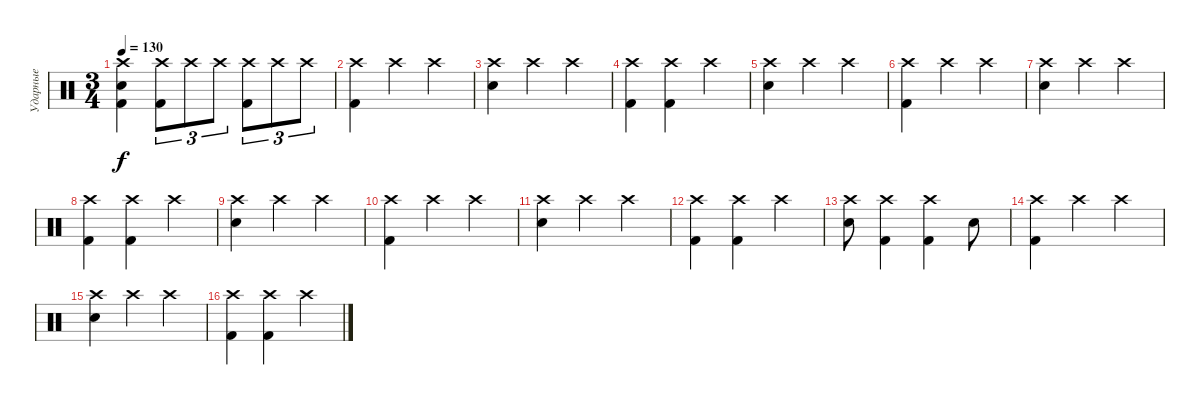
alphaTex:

\track ("Ударные" "Ударные") {instrument percussion}
\staff {score}
\articulation defaults
\ts (3 4)
\tempo 130
\clef neutral
\ks c
("Crash high (hit)" "Electric Snare (hit)" "Kick (hit) 2").4{dy f} ("Crash high (hit)" "Kick (hit) 2").8{tu (3 2)} "Crash high (hit)".8{tu (3 2)} "Crash high (hit)".8{tu (3 2)} ("Crash high (hit)" "Kick (hit) 2").8{tu (3 2)} "Crash high (hit)".8{tu (3 2)} "Crash high (hit)".8{tu (3 2)} |
("Crash high (hit)" "Kick (hit) 2").4 "Crash high (hit)".4 "Crash high (hit)".4 |
("Crash high (hit)" "Electric Snare (hit)").4 "Crash high (hit)".4 "Crash high (hit)".4 |
("Crash high (hit)" "Kick (hit) 2").4 ("Crash high (hit)" "Kick (hit) 2").4 "Crash high (hit)".4 |
("Crash high (hit)" "Electric Snare (hit)").4 "Crash high (hit)".4 "Crash high (hit)".4 |
("Crash high (hit)" "Kick (hit) 2").4 "Crash high (hit)".4 "Crash high (hit)".4 |
("Crash high (hit)" "Electric Snare (hit)").4 "Crash high (hit)".4 "Crash high (hit)".4 |
("Crash high (hit)" "Kick (hit) 2").4 ("Crash high (hit)" "Kick (hit) 2").4 "Crash high (hit)".4 |
("Crash high (hit)" "Electric Snare (hit)").4 "Crash high (hit)".4 "Crash high (hit)".4 |
("Crash high (hit)" "Kick (hit) 2").4 "Crash high (hit)".4 "Crash high (hit)".4 |
("Crash high (hit)" "Electric Snare (hit)").4 "Crash high (hit)".4 "Crash high (hit)".4 |
("Crash high (hit)" "Kick (hit) 2").4 ("Crash high (hit)" "Kick (hit) 2").4 "Crash high (hit)".4 |
("Crash high (hit)" "Electric Snare (hit)").8 ("Crash high (hit)" "Kick (hit) 2").4 ("Crash high (hit)" "Kick (hit) 2").4 "Electric Snare (hit)".8 |
("Crash high (hit)" "Kick (hit) 2").4 "Crash high (hit)".4 "Crash high (hit)".4 |
("Crash high (hit)" "Electric Snare (hit)").4 "Crash high (hit)".4 "Crash high (hit)".4 |
("Crash high (hit)" "Kick (hit) 2").4 ("Crash high (hit)" "Kick (hit) 2").4 "Crash high (hit)".4
